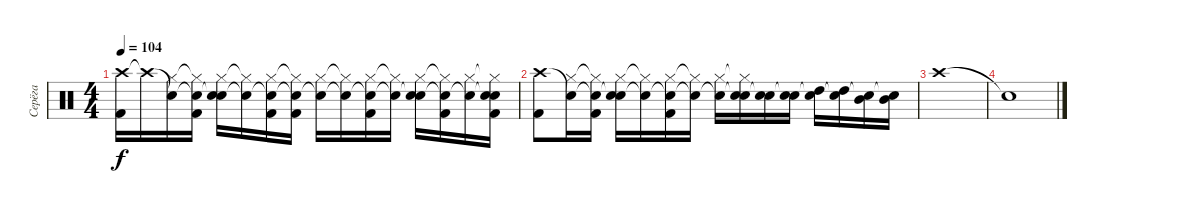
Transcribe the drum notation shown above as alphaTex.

\track ("Серёга" "Серёга") {instrument percussion}
\staff {score}
\articulation defaults
\ts (4 4)
\tempo 104
\clef neutral
\ks c
("Crash high (hit)" "Kick (hit) 2").16{dy f} "Crash high (hit)"{t}.16 ("Snare (hit)"{t} "Hi-Hat (closed)").16 ("Snare (hit)"{t} "Hi-Hat (closed)"{t} "Kick (hit) 2").16 ("Snare (hit)"{t} "Hi-Hat (closed)" "Electric Snare (hit)").16 ("Snare (hit)"{t} "Hi-Hat (closed)"{t}).16 ("Snare (hit)"{t} "Hi-Hat (closed)" "Kick (hit) 2").16 ("Snare (hit)"{t} "Hi-Hat (closed)"{t} "Kick (hit) 2").16 ("Snare (hit)"{t} "Hi-Hat (closed)").16 ("Snare (hit)"{t} "Hi-Hat (closed)"{t}).16 ("Snare (hit)"{t} "Hi-Hat (closed)" "Kick (hit) 2").16 ("Snare (hit)"{t} "Hi-Hat (closed)"{t}).16 ("Snare (hit)"{t} "Hi-Hat (closed)" "Electric Snare (hit)").16 ("Snare (hit)"{t} "Hi-Hat (closed)"{t} "Kick (hit) 2").16 ("Snare (hit)"{t} "Hi-Hat (closed)").16 ("Snare (hit)"{t} "Hi-Hat (closed)"{t} "Kick (hit) 2" "Electric Snare (hit)").16 |
("Crash high (hit)" "Kick (hit) 2").8 ("Snare (hit)"{t} "Hi-Hat (closed)").16 ("Snare (hit)"{t} "Hi-Hat (closed)"{t} "Kick (hit) 2").16 ("Snare (hit)"{t} "Hi-Hat (closed)" "Electric Snare (hit)").16 ("Snare (hit)"{t} "Hi-Hat (closed)"{t}).16 ("Snare (hit)"{t} "Hi-Hat (closed)" "Kick (hit) 2").16 ("Snare (hit)"{t} "Hi-Hat (closed)"{t}).16 ("Snare (hit)"{t} "Hi-Hat (closed)").16 ("Snare (hit)"{t} "Hi-Hat (closed)"{t} "Electric Snare (hit)").16 ("Snare (hit)"{t} "Electric Snare (hit)").16 ("Snare (hit)"{t} "Electric Snare (hit)").16 ("Snare (hit)"{t} "High Tom (hit)").16 ("Snare (hit)"{t} "High Tom (hit)").16 ("Snare (hit)"{t} "Mid Tom (hit)").16 ("Snare (hit)"{t} "Mid Tom (hit)").16 |
"Crash high (hit)".1 |
"Snare (hit)"{t}.1
